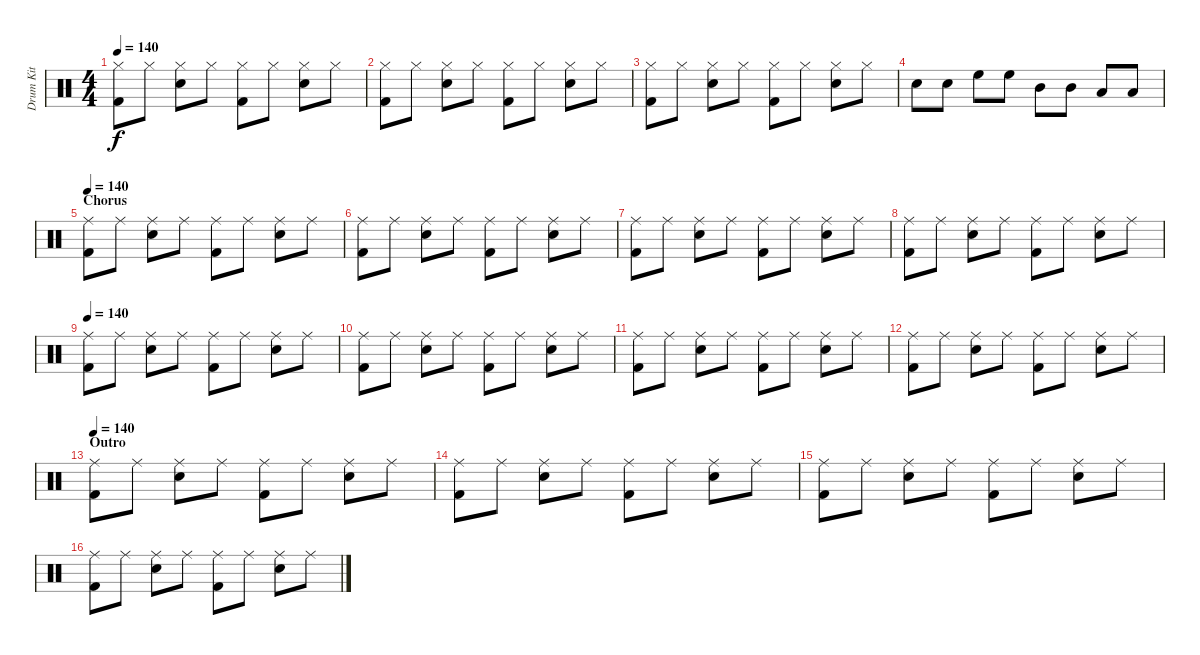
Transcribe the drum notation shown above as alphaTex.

\track ("Drum Kit" "Drum Kit") {instrument percussion}
\staff {score}
\articulation defaults
\ts (4 4)
\tempo 140
\clef neutral
\ks c
("Hi-Hat (closed)" "Kick (hit) 2").8{dy f} "Hi-Hat (closed)".8 ("Hi-Hat (closed)" "Snare (hit) 2").8 "Hi-Hat (closed)".8 ("Hi-Hat (closed)" "Kick (hit) 2").8 "Hi-Hat (closed)".8 ("Hi-Hat (closed)" "Snare (hit) 2").8 "Hi-Hat (closed)".8 |
("Hi-Hat (closed)" "Kick (hit) 2").8 "Hi-Hat (closed)".8 ("Hi-Hat (closed)" "Snare (hit) 2").8 "Hi-Hat (closed)".8 ("Hi-Hat (closed)" "Kick (hit) 2").8 "Hi-Hat (closed)".8 ("Hi-Hat (closed)" "Snare (hit) 2").8 "Hi-Hat (closed)".8 |
("Hi-Hat (closed)" "Kick (hit) 2").8 "Hi-Hat (closed)".8 ("Hi-Hat (closed)" "Snare (hit) 2").8 "Hi-Hat (closed)".8 ("Hi-Hat (closed)" "Kick (hit) 2").8 "Hi-Hat (closed)".8 ("Hi-Hat (closed)" "Snare (hit) 2").8 "Hi-Hat (closed)".8 |
"Snare (hit) 2".8 "Snare (hit) 2".8 "High Floor Tom (hit)".8 "High Floor Tom (hit)".8 "Mid Tom (hit)".8 "Mid Tom (hit)".8 "Low Tom (hit)".8 "Low Tom (hit)".8 |
\section ("" "Chorus")
\tempo 140
("Ride (middle)" "Kick (hit) 2").8 "Ride (middle)".8 ("Ride (middle)" "Snare (hit) 2").8 "Ride (middle)".8 ("Ride (middle)" "Kick (hit) 2").8 "Ride (middle)".8 ("Ride (middle)" "Snare (hit) 2").8 "Ride (middle)".8 |
("Ride (middle)" "Kick (hit) 2").8 "Ride (middle)".8 ("Ride (middle)" "Snare (hit) 2").8 "Ride (middle)".8 ("Ride (middle)" "Kick (hit) 2").8 "Ride (middle)".8 ("Ride (middle)" "Snare (hit) 2").8 "Ride (middle)".8 |
("Ride (middle)" "Kick (hit) 2").8 "Ride (middle)".8 ("Ride (middle)" "Snare (hit) 2").8 "Ride (middle)".8 ("Ride (middle)" "Kick (hit) 2").8 "Ride (middle)".8 ("Ride (middle)" "Snare (hit) 2").8 "Ride (middle)".8 |
("Ride (middle)" "Kick (hit) 2").8 "Ride (middle)".8 ("Ride (middle)" "Snare (hit) 2").8 "Ride (middle)".8 ("Ride (middle)" "Kick (hit) 2").8 "Ride (middle)".8 ("Ride (middle)" "Snare (hit) 2").8 "Ride (middle)".8 |
\tempo 140
("Ride (middle)" "Kick (hit) 2").8 "Ride (middle)".8 ("Ride (middle)" "Snare (hit) 2").8 "Ride (middle)".8 ("Ride (middle)" "Kick (hit) 2").8 "Ride (middle)".8 ("Ride (middle)" "Snare (hit) 2").8 "Ride (middle)".8 |
("Ride (middle)" "Kick (hit) 2").8 "Ride (middle)".8 ("Ride (middle)" "Snare (hit) 2").8 "Ride (middle)".8 ("Ride (middle)" "Kick (hit) 2").8 "Ride (middle)".8 ("Ride (middle)" "Snare (hit) 2").8 "Ride (middle)".8 |
("Ride (middle)" "Kick (hit) 2").8 "Ride (middle)".8 ("Ride (middle)" "Snare (hit) 2").8 "Ride (middle)".8 ("Ride (middle)" "Kick (hit) 2").8 "Ride (middle)".8 ("Ride (middle)" "Snare (hit) 2").8 "Ride (middle)".8 |
("Ride (middle)" "Kick (hit) 2").8 "Ride (middle)".8 ("Ride (middle)" "Snare (hit) 2").8 "Ride (middle)".8 ("Ride (middle)" "Kick (hit) 2").8 "Ride (middle)".8 ("Ride (middle)" "Snare (hit) 2").8 "Ride (middle)".8 |
\section ("" "Outro")
\tempo 140
("Ride (middle)" "Kick (hit) 2").8 "Ride (middle)".8 ("Ride (middle)" "Snare (hit) 2").8 "Ride (middle)".8 ("Ride (middle)" "Kick (hit) 2").8 "Ride (middle)".8 ("Ride (middle)" "Snare (hit) 2").8 "Ride (middle)".8 |
("Ride (middle)" "Kick (hit) 2").8 "Ride (middle)".8 ("Ride (middle)" "Snare (hit) 2").8 "Ride (middle)".8 ("Ride (middle)" "Kick (hit) 2").8 "Ride (middle)".8 ("Ride (middle)" "Snare (hit) 2").8 "Ride (middle)".8 |
("Ride (middle)" "Kick (hit) 2").8 "Ride (middle)".8 ("Ride (middle)" "Snare (hit) 2").8 "Ride (middle)".8 ("Ride (middle)" "Kick (hit) 2").8 "Ride (middle)".8 ("Ride (middle)" "Snare (hit) 2").8 "Ride (middle)".8 |
("Ride (middle)" "Kick (hit) 2").8 "Ride (middle)".8 ("Ride (middle)" "Snare (hit) 2").8 "Ride (middle)".8 ("Ride (middle)" "Kick (hit) 2").8 "Ride (middle)".8 ("Ride (middle)" "Snare (hit) 2").8 "Ride (middle)".8
